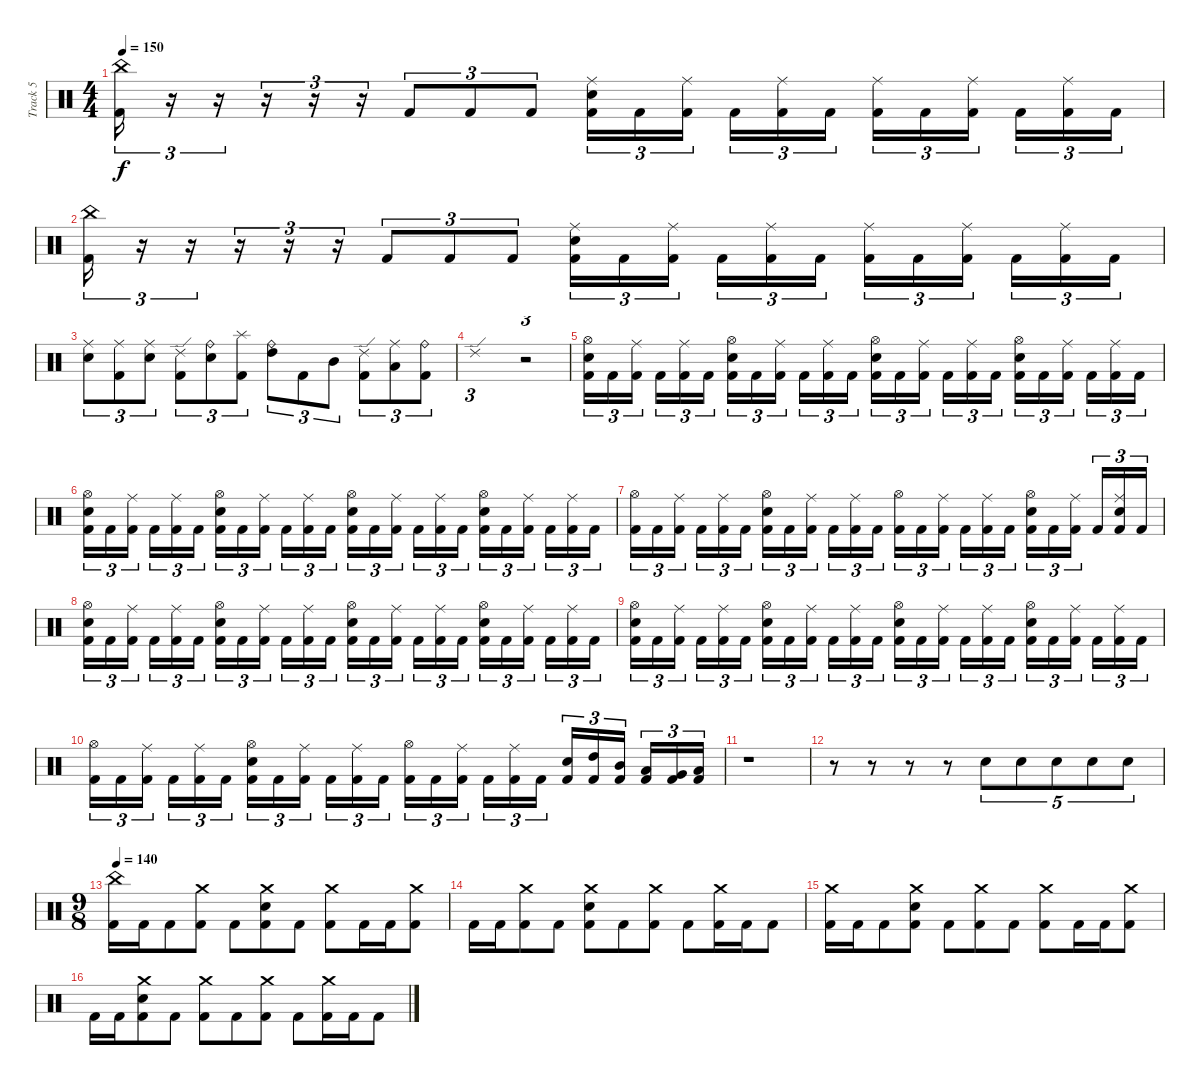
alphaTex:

\track ("Track 5" "Track 5") {instrument percussion}
\staff {score}
\articulation defaults
\ts (4 4)
\tempo 150
\clef neutral
\ks c
("China (hit)" "Kick (hit) 2").16{tu (3 2) dy f} r.16{tu (3 2)} r.16{tu (3 2)} r.16{tu (3 2)} r.16{tu (3 2)} r.16{tu (3 2)} "Kick (hit) 2".8{tu (3 2)} "Kick (hit) 2".8{tu (3 2)} "Kick (hit) 2".8{tu (3 2)} ("Ride (middle)" "Electric Snare (hit)" "Kick (hit) 2").16{tu (3 2)} "Kick (hit) 2".16{tu (3 2)} ("Ride (middle)" "Kick (hit) 2").16{tu (3 2)} "Kick (hit) 2".16{tu (3 2)} ("Ride (middle)" "Kick (hit) 2").16{tu (3 2)} "Kick (hit) 2".16{tu (3 2)} ("Ride (middle)" "Kick (hit) 2").16{tu (3 2)} "Kick (hit) 2".16{tu (3 2)} ("Ride (middle)" "Kick (hit) 2").16{tu (3 2)} "Kick (hit) 2".16{tu (3 2)} ("Ride (middle)" "Kick (hit) 2").16{tu (3 2)} "Kick (hit) 2".16{tu (3 2)} |
("China (hit)" "Kick (hit) 2").16{tu (3 2)} r.16{tu (3 2)} r.16{tu (3 2)} r.16{tu (3 2)} r.16{tu (3 2)} r.16{tu (3 2)} "Kick (hit) 2".8{tu (3 2)} "Kick (hit) 2".8{tu (3 2)} "Kick (hit) 2".8{tu (3 2)} ("Ride (middle)" "Electric Snare (hit)" "Kick (hit) 2").16{tu (3 2)} "Kick (hit) 2".16{tu (3 2)} ("Ride (middle)" "Kick (hit) 2").16{tu (3 2)} "Kick (hit) 2".16{tu (3 2)} ("Ride (middle)" "Kick (hit) 2").16{tu (3 2)} "Kick (hit) 2".16{tu (3 2)} ("Ride (middle)" "Kick (hit) 2").16{tu (3 2)} "Kick (hit) 2".16{tu (3 2)} ("Ride (middle)" "Kick (hit) 2").16{tu (3 2)} "Kick (hit) 2".16{tu (3 2)} ("Ride (middle)" "Kick (hit) 2").16{tu (3 2)} "Kick (hit) 2".16{tu (3 2)} |
("Ride (middle)" "Electric Snare (hit)").8{tu (3 2)} ("Ride (middle)" "Kick (hit) 2").8{tu (3 2)} ("Ride (middle)" "Electric Snare (hit)").8{tu (3 2)} ("Ride (edge) 2" "Kick (hit) 2").8{tu (3 2)} ("Ride (bell)" "Electric Snare (hit)").8{tu (3 2)} ("Splash (hit)" "Kick (hit) 2").8{tu (3 2)} ("Ride (bell)" "High Tom (hit)").8{tu (3 2)} "Kick (hit) 2".8{tu (3 2)} "Mid Tom (hit)".8{tu (3 2)} ("Ride (edge) 2" "Kick (hit) 2").8{tu (3 2)} ("Ride (middle)" "Low Tom (hit)").8{tu (3 2)} ("Ride (bell)" "Kick (hit) 2").8{tu (3 2)} |
"Ride (edge) 2".1{tu (3 2)} r.2{tu (3 2)} |
("Hi-Hat (open)" "Electric Snare (hit)" "Kick (hit) 2").16{tu (3 2)} "Kick (hit) 2".16{tu (3 2)} ("Ride (middle)" "Kick (hit) 2").16{tu (3 2)} "Kick (hit) 2".16{tu (3 2)} ("Ride (middle)" "Kick (hit) 2").16{tu (3 2)} "Kick (hit) 2".16{tu (3 2)} ("Hi-Hat (open)" "Electric Snare (hit)" "Kick (hit) 2").16{tu (3 2)} "Kick (hit) 2".16{tu (3 2)} ("Ride (middle)" "Kick (hit) 2").16{tu (3 2)} "Kick (hit) 2".16{tu (3 2)} ("Ride (middle)" "Kick (hit) 2").16{tu (3 2)} "Kick (hit) 2".16{tu (3 2)} ("Hi-Hat (open)" "Electric Snare (hit)" "Kick (hit) 2").16{tu (3 2)} "Kick (hit) 2".16{tu (3 2)} ("Ride (middle)" "Kick (hit) 2").16{tu (3 2)} "Kick (hit) 2".16{tu (3 2)} ("Ride (middle)" "Kick (hit) 2").16{tu (3 2)} "Kick (hit) 2".16{tu (3 2)} ("Hi-Hat (open)" "Electric Snare (hit)" "Kick (hit) 2").16{tu (3 2)} "Kick (hit) 2".16{tu (3 2)} ("Ride (middle)" "Kick (hit) 2").16{tu (3 2)} "Kick (hit) 2".16{tu (3 2)} ("Ride (middle)" "Kick (hit) 2").16{tu (3 2)} "Kick (hit) 2".16{tu (3 2)} |
("Hi-Hat (open)" "Electric Snare (hit)" "Kick (hit) 2").16{tu (3 2)} "Kick (hit) 2".16{tu (3 2)} ("Ride (middle)" "Kick (hit) 2").16{tu (3 2)} "Kick (hit) 2".16{tu (3 2)} ("Ride (middle)" "Kick (hit) 2").16{tu (3 2)} "Kick (hit) 2".16{tu (3 2)} ("Hi-Hat (open)" "Electric Snare (hit)" "Kick (hit) 2").16{tu (3 2)} "Kick (hit) 2".16{tu (3 2)} ("Ride (middle)" "Kick (hit) 2").16{tu (3 2)} "Kick (hit) 2".16{tu (3 2)} ("Ride (middle)" "Kick (hit) 2").16{tu (3 2)} "Kick (hit) 2".16{tu (3 2)} ("Hi-Hat (open)" "Electric Snare (hit)" "Kick (hit) 2").16{tu (3 2)} "Kick (hit) 2".16{tu (3 2)} ("Ride (middle)" "Kick (hit) 2").16{tu (3 2)} "Kick (hit) 2".16{tu (3 2)} ("Ride (middle)" "Kick (hit) 2").16{tu (3 2)} "Kick (hit) 2".16{tu (3 2)} ("Hi-Hat (open)" "Electric Snare (hit)" "Kick (hit) 2").16{tu (3 2)} "Kick (hit) 2".16{tu (3 2)} ("Ride (middle)" "Kick (hit) 2").16{tu (3 2)} "Kick (hit) 2".16{tu (3 2)} ("Ride (middle)" "Kick (hit) 2").16{tu (3 2)} "Kick (hit) 2".16{tu (3 2)} |
("Hi-Hat (open)" "Kick (hit) 2").16{tu (3 2)} "Kick (hit) 2".16{tu (3 2)} ("Ride (middle)" "Kick (hit) 2").16{tu (3 2)} "Kick (hit) 2".16{tu (3 2)} ("Ride (middle)" "Kick (hit) 2").16{tu (3 2)} "Kick (hit) 2".16{tu (3 2)} ("Hi-Hat (open)" "Electric Snare (hit)" "Kick (hit) 2").16{tu (3 2)} "Kick (hit) 2".16{tu (3 2)} ("Ride (middle)" "Kick (hit) 2").16{tu (3 2)} "Kick (hit) 2".16{tu (3 2)} ("Ride (middle)" "Kick (hit) 2").16{tu (3 2)} "Kick (hit) 2".16{tu (3 2)} ("Hi-Hat (open)" "Kick (hit) 2").16{tu (3 2)} "Kick (hit) 2".16{tu (3 2)} ("Ride (middle)" "Kick (hit) 2").16{tu (3 2)} "Kick (hit) 2".16{tu (3 2)} ("Ride (middle)" "Kick (hit) 2").16{tu (3 2)} "Kick (hit) 2".16{tu (3 2)} ("Hi-Hat (open)" "Electric Snare (hit)" "Kick (hit) 2").16{tu (3 2)} "Kick (hit) 2".16{tu (3 2)} ("Ride (middle)" "Kick (hit) 2").16{tu (3 2)} "Kick (hit) 2".16{tu (3 2)} ("Ride (middle)" "Electric Snare (hit)" "Kick (hit) 2").16{tu (3 2)} "Kick (hit) 2".16{tu (3 2)} |
("Hi-Hat (open)" "Electric Snare (hit)" "Kick (hit) 2").16{tu (3 2)} "Kick (hit) 2".16{tu (3 2)} ("Ride (middle)" "Kick (hit) 2").16{tu (3 2)} "Kick (hit) 2".16{tu (3 2)} ("Ride (middle)" "Kick (hit) 2").16{tu (3 2)} "Kick (hit) 2".16{tu (3 2)} ("Hi-Hat (open)" "Electric Snare (hit)" "Kick (hit) 2").16{tu (3 2)} "Kick (hit) 2".16{tu (3 2)} ("Ride (middle)" "Kick (hit) 2").16{tu (3 2)} "Kick (hit) 2".16{tu (3 2)} ("Ride (middle)" "Kick (hit) 2").16{tu (3 2)} "Kick (hit) 2".16{tu (3 2)} ("Hi-Hat (open)" "Electric Snare (hit)" "Kick (hit) 2").16{tu (3 2)} "Kick (hit) 2".16{tu (3 2)} ("Ride (middle)" "Kick (hit) 2").16{tu (3 2)} "Kick (hit) 2".16{tu (3 2)} ("Ride (middle)" "Kick (hit) 2").16{tu (3 2)} "Kick (hit) 2".16{tu (3 2)} ("Hi-Hat (open)" "Electric Snare (hit)" "Kick (hit) 2").16{tu (3 2)} "Kick (hit) 2".16{tu (3 2)} ("Ride (middle)" "Kick (hit) 2").16{tu (3 2)} "Kick (hit) 2".16{tu (3 2)} ("Ride (middle)" "Kick (hit) 2").16{tu (3 2)} "Kick (hit) 2".16{tu (3 2)} |
("Hi-Hat (open)" "Electric Snare (hit)" "Kick (hit) 2").16{tu (3 2)} "Kick (hit) 2".16{tu (3 2)} ("Ride (middle)" "Kick (hit) 2").16{tu (3 2)} "Kick (hit) 2".16{tu (3 2)} ("Ride (middle)" "Kick (hit) 2").16{tu (3 2)} "Kick (hit) 2".16{tu (3 2)} ("Hi-Hat (open)" "Electric Snare (hit)" "Kick (hit) 2").16{tu (3 2)} "Kick (hit) 2".16{tu (3 2)} ("Ride (middle)" "Kick (hit) 2").16{tu (3 2)} "Kick (hit) 2".16{tu (3 2)} ("Ride (middle)" "Kick (hit) 2").16{tu (3 2)} "Kick (hit) 2".16{tu (3 2)} ("Hi-Hat (open)" "Electric Snare (hit)" "Kick (hit) 2").16{tu (3 2)} "Kick (hit) 2".16{tu (3 2)} ("Ride (middle)" "Kick (hit) 2").16{tu (3 2)} "Kick (hit) 2".16{tu (3 2)} ("Ride (middle)" "Kick (hit) 2").16{tu (3 2)} "Kick (hit) 2".16{tu (3 2)} ("Hi-Hat (open)" "Electric Snare (hit)" "Kick (hit) 2").16{tu (3 2)} "Kick (hit) 2".16{tu (3 2)} ("Ride (middle)" "Kick (hit) 2").16{tu (3 2)} "Kick (hit) 2".16{tu (3 2)} ("Ride (middle)" "Kick (hit) 2").16{tu (3 2)} "Kick (hit) 2".16{tu (3 2)} |
("Hi-Hat (open)" "Kick (hit) 2").16{tu (3 2)} "Kick (hit) 2".16{tu (3 2)} ("Ride (middle)" "Kick (hit) 2").16{tu (3 2)} "Kick (hit) 2".16{tu (3 2)} ("Ride (middle)" "Kick (hit) 2").16{tu (3 2)} "Kick (hit) 2".16{tu (3 2)} ("Hi-Hat (open)" "Electric Snare (hit)" "Kick (hit) 2").16{tu (3 2)} "Kick (hit) 2".16{tu (3 2)} ("Ride (middle)" "Kick (hit) 2").16{tu (3 2)} "Kick (hit) 2".16{tu (3 2)} ("Ride (middle)" "Kick (hit) 2").16{tu (3 2)} "Kick (hit) 2".16{tu (3 2)} ("Hi-Hat (open)" "Kick (hit) 2").16{tu (3 2)} "Kick (hit) 2".16{tu (3 2)} ("Ride (middle)" "Kick (hit) 2").16{tu (3 2)} "Kick (hit) 2".16{tu (3 2)} ("Ride (middle)" "Kick (hit) 2").16{tu (3 2)} "Kick (hit) 2".16{tu (3 2)} ("Electric Snare (hit)" "Kick (hit) 2").16{tu (3 2)} ("High Tom (hit)" "Kick (hit) 2").16{tu (3 2)} ("Mid Tom (hit)" "Kick (hit) 2").16{tu (3 2)} ("Low Tom (hit)" "Kick (hit) 2").16{tu (3 2)} ("Very Low Tom (hit)" "Kick (hit) 2").16{tu (3 2)} ("Low Floor Tom (hit)" "Kick (hit) 2").16{tu (3 2)} |
r.1 |
r.8 r.8 r.8 r.8 "Electric Snare (hit)".8{tu (5 4)} "Electric Snare (hit)".8{tu (5 4)} "Electric Snare (hit)".8{tu (5 4)} "Electric Snare (hit)".8{tu (5 4)} "Electric Snare (hit)".8{tu (5 4)} |
\ts (9 8)
\tempo 140
("China (hit)" "Kick (hit) 2").16 "Kick (hit) 2".16 "Kick (hit) 2".8 ("Crash medium (hit)" "Kick (hit) 2").8 "Kick (hit) 2".8 ("Crash medium (hit)" "Electric Snare (hit)" "Kick (hit) 2").8 "Kick (hit) 2".8 ("Crash medium (hit)" "Kick (hit) 2").8 "Kick (hit) 2".16 "Kick (hit) 2".16 ("Crash medium (hit)" "Kick (hit) 2").8 |
"Kick (hit) 2".16 "Kick (hit) 2".16 ("Crash medium (hit)" "Kick (hit) 2").8 "Kick (hit) 2".8 ("Crash medium (hit)" "Electric Snare (hit)" "Kick (hit) 2").8 "Kick (hit) 2".8 ("Crash medium (hit)" "Kick (hit) 2").8 "Kick (hit) 2".8 ("Crash medium (hit)" "Kick (hit) 2").16 "Kick (hit) 2".16 "Kick (hit) 2".8 |
("Crash medium (hit)" "Kick (hit) 2").16 "Kick (hit) 2".16 "Kick (hit) 2".8 ("Crash medium (hit)" "Electric Snare (hit)" "Kick (hit) 2").8 "Kick (hit) 2".8 ("Crash medium (hit)" "Kick (hit) 2").8 "Kick (hit) 2".8 ("Crash medium (hit)" "Kick (hit) 2").8 "Kick (hit) 2".16 "Kick (hit) 2".16 ("Crash medium (hit)" "Kick (hit) 2").8 |
"Kick (hit) 2".16 "Kick (hit) 2".16 ("Crash medium (hit)" "Electric Snare (hit)" "Kick (hit) 2").8 "Kick (hit) 2".8 ("Crash medium (hit)" "Kick (hit) 2").8 "Kick (hit) 2".8 ("Crash medium (hit)" "Kick (hit) 2").8 "Kick (hit) 2".8 ("Crash medium (hit)" "Kick (hit) 2").16 "Kick (hit) 2".16 "Kick (hit) 2".8
